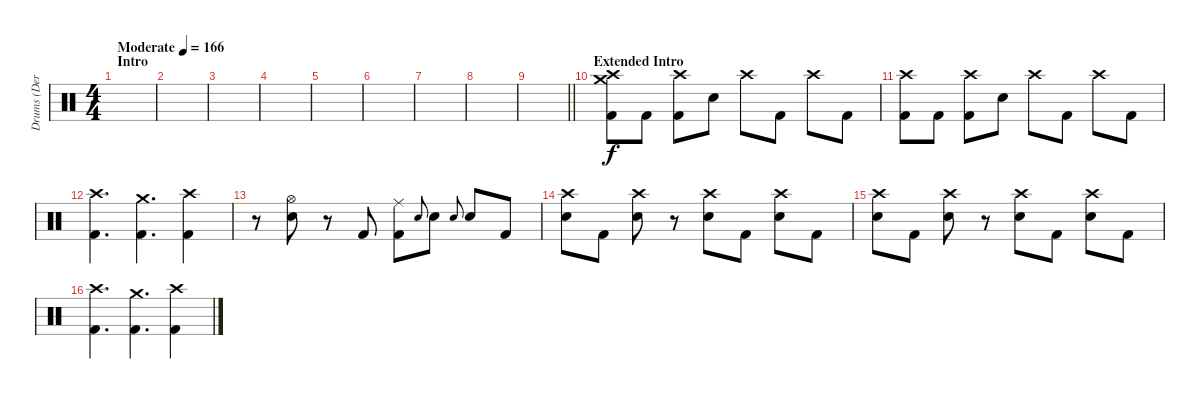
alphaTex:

\track ("Drums (Derek)" "Drums (Der") {instrument percussion}
\staff {score}
\articulation defaults
\ts (4 4)
\section ("" "Intro")
\tempo (166 "Moderate")
\clef neutral
\ks c
|
|
|
|
|
|
|
|
\barLineRight lightlight
|
\section ("" "Extended Intro")
("Crash high (hit)" "Kick (hit) 2" "Crash medium (hit)").8 "Kick (hit) 2".8 ("Crash high (hit)" "Kick (hit) 2").8 "Electric Snare (hit)".8 "Crash high (hit)".8 "Kick (hit) 2".8 "Crash high (hit)".8 "Kick (hit) 2".8 |
("Crash high (hit)" "Kick (hit) 2").8 "Kick (hit) 2".8 ("Crash high (hit)" "Kick (hit) 2").8 "Electric Snare (hit)".8 "Crash high (hit)".8 "Kick (hit) 2".8 "Crash high (hit)".8 "Kick (hit) 2".8 |
("Crash high (hit)" "Kick (hit) 2").4{d} ("Crash medium (hit)" "Kick (hit) 2").4{d} ("Crash high (hit)" "Kick (hit) 2").4 |
r.8 ("Hi-Hat (open)" "Electric Snare (hit)").8 r.8 "Kick (hit) 2".8 ("Ride (middle)" "Kick (hit) 2").8 "Electric Snare (hit)".8{gr onbeat} "Electric Snare (hit)".8 "Electric Snare (hit)".8{gr onbeat} "Electric Snare (hit)".8 "Kick (hit) 2".8 |
("Crash high (hit)" "Electric Snare (hit)").8 "Kick (hit) 2".8 ("Crash high (hit)" "Electric Snare (hit)").8 r.8 ("Crash high (hit)" "Electric Snare (hit)").8 "Kick (hit) 2".8 ("Crash high (hit)" "Electric Snare (hit)").8 "Kick (hit) 2".8 |
("Crash high (hit)" "Electric Snare (hit)").8 "Kick (hit) 2".8 ("Crash high (hit)" "Electric Snare (hit)").8 r.8 ("Crash high (hit)" "Electric Snare (hit)").8 "Kick (hit) 2".8 ("Crash high (hit)" "Electric Snare (hit)").8 "Kick (hit) 2".8 |
("Crash high (hit)" "Kick (hit) 2").4{d} ("Crash medium (hit)" "Kick (hit) 2").4{d} ("Crash high (hit)" "Kick (hit) 2").4
